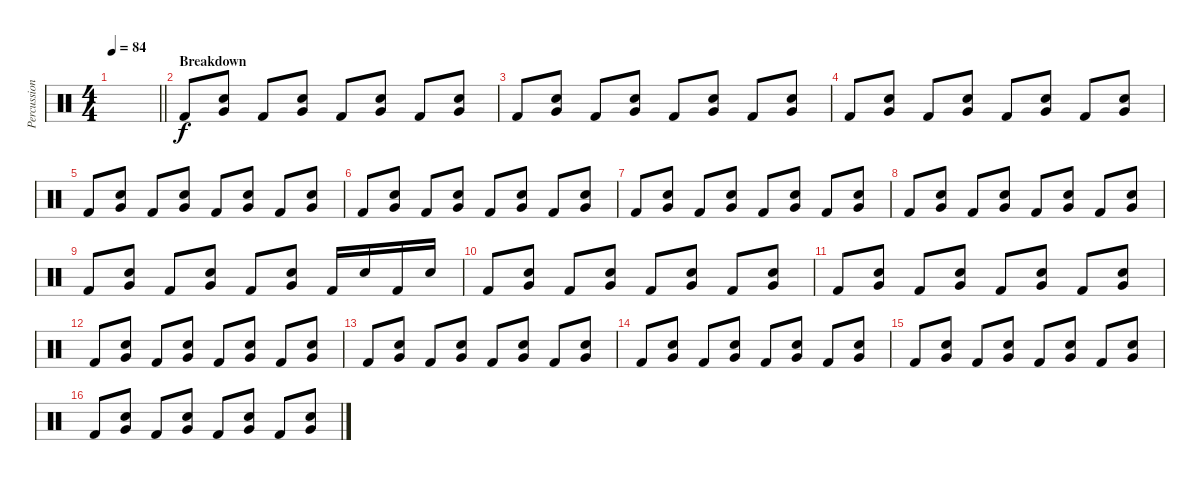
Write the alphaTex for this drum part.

\track ("Percussion" "Percussion") {instrument percussion}
\staff {score}
\articulation defaults
\ts (4 4)
\tempo 84
\clef neutral
\barLineRight lightlight
\ks c
|
\section ("" "Breakdown")
"Kick (hit) 2".8 ("Very Low Tom (hit)" "Snare (hit) 2").8 "Kick (hit) 2".8 ("Very Low Tom (hit)" "Snare (hit) 2").8 "Kick (hit) 2".8 ("Very Low Tom (hit)" "Snare (hit) 2").8 "Kick (hit) 2".8 ("Very Low Tom (hit)" "Snare (hit) 2").8 |
"Kick (hit) 2".8 ("Very Low Tom (hit)" "Snare (hit) 2").8 "Kick (hit) 2".8 ("Very Low Tom (hit)" "Snare (hit) 2").8 "Kick (hit) 2".8 ("Very Low Tom (hit)" "Snare (hit) 2").8 "Kick (hit) 2".8 ("Very Low Tom (hit)" "Snare (hit) 2").8 |
"Kick (hit) 2".8 ("Very Low Tom (hit)" "Snare (hit) 2").8 "Kick (hit) 2".8 ("Very Low Tom (hit)" "Snare (hit) 2").8 "Kick (hit) 2".8 ("Very Low Tom (hit)" "Snare (hit) 2").8 "Kick (hit) 2".8 ("Very Low Tom (hit)" "Snare (hit) 2").8 |
"Kick (hit) 2".8 ("Very Low Tom (hit)" "Snare (hit) 2").8 "Kick (hit) 2".8 ("Very Low Tom (hit)" "Snare (hit) 2").8 "Kick (hit) 2".8 ("Very Low Tom (hit)" "Snare (hit) 2").8 "Kick (hit) 2".8 ("Very Low Tom (hit)" "Snare (hit) 2").8 |
"Kick (hit) 2".8 ("Very Low Tom (hit)" "Snare (hit) 2").8 "Kick (hit) 2".8 ("Very Low Tom (hit)" "Snare (hit) 2").8 "Kick (hit) 2".8 ("Very Low Tom (hit)" "Snare (hit) 2").8 "Kick (hit) 2".8 ("Very Low Tom (hit)" "Snare (hit) 2").8 |
"Kick (hit) 2".8 ("Very Low Tom (hit)" "Snare (hit) 2").8 "Kick (hit) 2".8 ("Very Low Tom (hit)" "Snare (hit) 2").8 "Kick (hit) 2".8 ("Very Low Tom (hit)" "Snare (hit) 2").8 "Kick (hit) 2".8 ("Very Low Tom (hit)" "Snare (hit) 2").8 |
"Kick (hit) 2".8 ("Very Low Tom (hit)" "Snare (hit) 2").8 "Kick (hit) 2".8 ("Very Low Tom (hit)" "Snare (hit) 2").8 "Kick (hit) 2".8 ("Very Low Tom (hit)" "Snare (hit) 2").8 "Kick (hit) 2".8 ("Very Low Tom (hit)" "Snare (hit) 2").8 |
"Kick (hit) 2".8 ("Very Low Tom (hit)" "Snare (hit) 2").8 "Kick (hit) 2".8 ("Very Low Tom (hit)" "Snare (hit) 2").8 "Kick (hit) 2".8 ("Very Low Tom (hit)" "Snare (hit) 2").8 "Kick (hit) 2".16 "Snare (hit) 2".16 "Kick (hit) 2".16 "Snare (hit) 2".16 |
"Kick (hit) 2".8 ("Very Low Tom (hit)" "Snare (hit) 2").8 "Kick (hit) 2".8 ("Very Low Tom (hit)" "Snare (hit) 2").8 "Kick (hit) 2".8 ("Very Low Tom (hit)" "Snare (hit) 2").8 "Kick (hit) 2".8 ("Very Low Tom (hit)" "Snare (hit) 2").8 |
"Kick (hit) 2".8 ("Very Low Tom (hit)" "Snare (hit) 2").8 "Kick (hit) 2".8 ("Very Low Tom (hit)" "Snare (hit) 2").8 "Kick (hit) 2".8 ("Very Low Tom (hit)" "Snare (hit) 2").8 "Kick (hit) 2".8 ("Very Low Tom (hit)" "Snare (hit) 2").8 |
"Kick (hit) 2".8 ("Very Low Tom (hit)" "Snare (hit) 2").8 "Kick (hit) 2".8 ("Very Low Tom (hit)" "Snare (hit) 2").8 "Kick (hit) 2".8 ("Very Low Tom (hit)" "Snare (hit) 2").8 "Kick (hit) 2".8 ("Very Low Tom (hit)" "Snare (hit) 2").8 |
"Kick (hit) 2".8 ("Very Low Tom (hit)" "Snare (hit) 2").8 "Kick (hit) 2".8 ("Very Low Tom (hit)" "Snare (hit) 2").8 "Kick (hit) 2".8 ("Very Low Tom (hit)" "Snare (hit) 2").8 "Kick (hit) 2".8 ("Very Low Tom (hit)" "Snare (hit) 2").8 |
"Kick (hit) 2".8 ("Very Low Tom (hit)" "Snare (hit) 2").8 "Kick (hit) 2".8 ("Very Low Tom (hit)" "Snare (hit) 2").8 "Kick (hit) 2".8 ("Very Low Tom (hit)" "Snare (hit) 2").8 "Kick (hit) 2".8 ("Very Low Tom (hit)" "Snare (hit) 2").8 |
"Kick (hit) 2".8 ("Very Low Tom (hit)" "Snare (hit) 2").8 "Kick (hit) 2".8 ("Very Low Tom (hit)" "Snare (hit) 2").8 "Kick (hit) 2".8 ("Very Low Tom (hit)" "Snare (hit) 2").8 "Kick (hit) 2".8 ("Very Low Tom (hit)" "Snare (hit) 2").8 |
"Kick (hit) 2".8 ("Very Low Tom (hit)" "Snare (hit) 2").8 "Kick (hit) 2".8 ("Very Low Tom (hit)" "Snare (hit) 2").8 "Kick (hit) 2".8 ("Very Low Tom (hit)" "Snare (hit) 2").8 "Kick (hit) 2".8 ("Very Low Tom (hit)" "Snare (hit) 2").8
